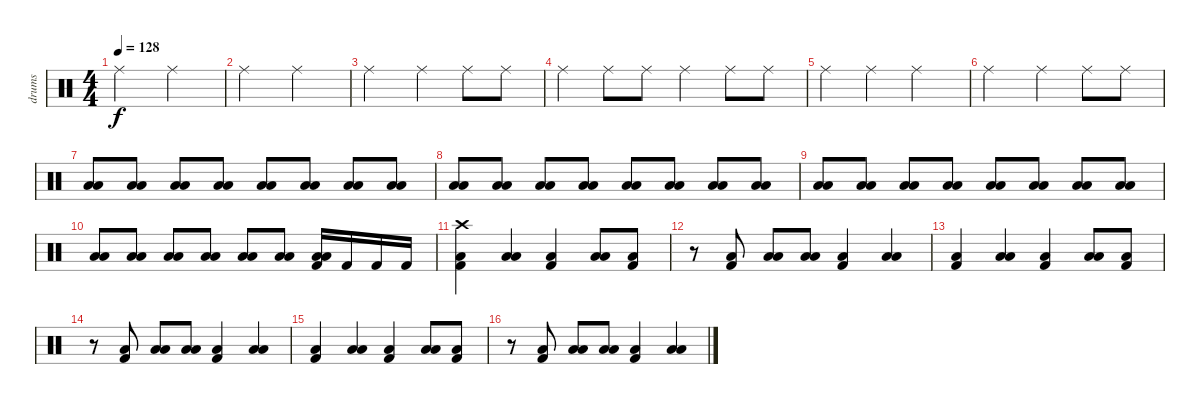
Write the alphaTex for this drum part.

\track ("drums" "drums") {instrument percussion}
\staff {score}
\articulation defaults
\ts (4 4)
\tempo 128
\clef neutral
\ks c "Ride (middle)".2{dy f} "Ride (middle)".2
|
"Ride (middle)".2 "Ride (middle)".2 |
"Ride (middle)".2 "Ride (middle)".4 "Ride (middle)".8 "Ride (middle)".8 |
"Ride (middle)".4 "Ride (middle)".8 "Ride (middle)".8 "Ride (middle)".4 "Ride (middle)".8 "Ride (middle)".8 |
"Ride (middle)".4 "Ride (middle)".4 "Ride (middle)".2 |
"Ride (middle)".2 "Ride (middle)".4 "Ride (middle)".8 "Ride (middle)".8 |
("Low Tom (hit)" "Low Floor Tom (hit)").8 ("Low Tom (hit)" "Low Floor Tom (hit)").8 ("Low Tom (hit)" "Low Floor Tom (hit)").8 ("Low Tom (hit)" "Low Floor Tom (hit)").8 ("Low Tom (hit)" "Low Floor Tom (hit)").8 ("Low Tom (hit)" "Low Floor Tom (hit)").8 ("Low Tom (hit)" "Low Floor Tom (hit)").8 ("Low Tom (hit)" "Low Floor Tom (hit)").8 |
("Low Tom (hit)" "Low Floor Tom (hit)").8 ("Low Tom (hit)" "Low Floor Tom (hit)").8 ("Low Tom (hit)" "Low Floor Tom (hit)").8 ("Low Tom (hit)" "Low Floor Tom (hit)").8 ("Low Tom (hit)" "Low Floor Tom (hit)").8 ("Low Tom (hit)" "Low Floor Tom (hit)").8 ("Low Tom (hit)" "Low Floor Tom (hit)").8 ("Low Tom (hit)" "Low Floor Tom (hit)").8 |
("Low Tom (hit)" "Low Floor Tom (hit)").8 ("Low Tom (hit)" "Low Floor Tom (hit)").8 ("Low Tom (hit)" "Low Floor Tom (hit)").8 ("Low Tom (hit)" "Low Floor Tom (hit)").8 ("Low Tom (hit)" "Low Floor Tom (hit)").8 ("Low Tom (hit)" "Low Floor Tom (hit)").8 ("Low Tom (hit)" "Low Floor Tom (hit)").8 ("Low Tom (hit)" "Low Floor Tom (hit)").8 |
("Low Tom (hit)" "Low Floor Tom (hit)").8 ("Low Tom (hit)" "Low Floor Tom (hit)").8 ("Low Tom (hit)" "Low Floor Tom (hit)").8 ("Low Tom (hit)" "Low Floor Tom (hit)").8 ("Low Tom (hit)" "Low Floor Tom (hit)").8 ("Low Tom (hit)" "Low Floor Tom (hit)").8 ("Low Tom (hit)" "Low Floor Tom (hit)" "Kick (hit) 2").16 "Kick (hit) 2".16 "Kick (hit) 2".16 "Kick (hit) 2".16 |
("Crash high (hit)" "Low Floor Tom (hit)" "Kick (hit) 2").4 ("Low Tom (hit)" "Low Floor Tom (hit)").4 ("Low Floor Tom (hit)" "Kick (hit) 2").4 ("Low Tom (hit)" "Low Floor Tom (hit)").8 ("Low Floor Tom (hit)" "Kick (hit) 2").8 |
r.8 ("Low Floor Tom (hit)" "Kick (hit) 2").8 ("Low Tom (hit)" "Low Floor Tom (hit)").8 ("Low Tom (hit)" "Low Floor Tom (hit)").8 ("Low Floor Tom (hit)" "Kick (hit) 2").4 ("Low Tom (hit)" "Low Floor Tom (hit)").4 |
("Low Floor Tom (hit)" "Kick (hit) 2").4 ("Low Tom (hit)" "Low Floor Tom (hit)").4 ("Low Floor Tom (hit)" "Kick (hit) 2").4 ("Low Tom (hit)" "Low Floor Tom (hit)").8 ("Low Floor Tom (hit)" "Kick (hit) 2").8 |
r.8 ("Low Floor Tom (hit)" "Kick (hit) 2").8 ("Low Tom (hit)" "Low Floor Tom (hit)").8 ("Low Tom (hit)" "Low Floor Tom (hit)").8 ("Low Floor Tom (hit)" "Kick (hit) 2").4 ("Low Tom (hit)" "Low Floor Tom (hit)").4 |
("Low Floor Tom (hit)" "Kick (hit) 2").4 ("Low Tom (hit)" "Low Floor Tom (hit)").4 ("Low Floor Tom (hit)" "Kick (hit) 2").4 ("Low Tom (hit)" "Low Floor Tom (hit)").8 ("Low Floor Tom (hit)" "Kick (hit) 2").8 |
r.8 ("Low Floor Tom (hit)" "Kick (hit) 2").8 ("Low Tom (hit)" "Low Floor Tom (hit)").8 ("Low Tom (hit)" "Low Floor Tom (hit)").8 ("Low Floor Tom (hit)" "Kick (hit) 2").4 ("Low Tom (hit)" "Low Floor Tom (hit)").4
